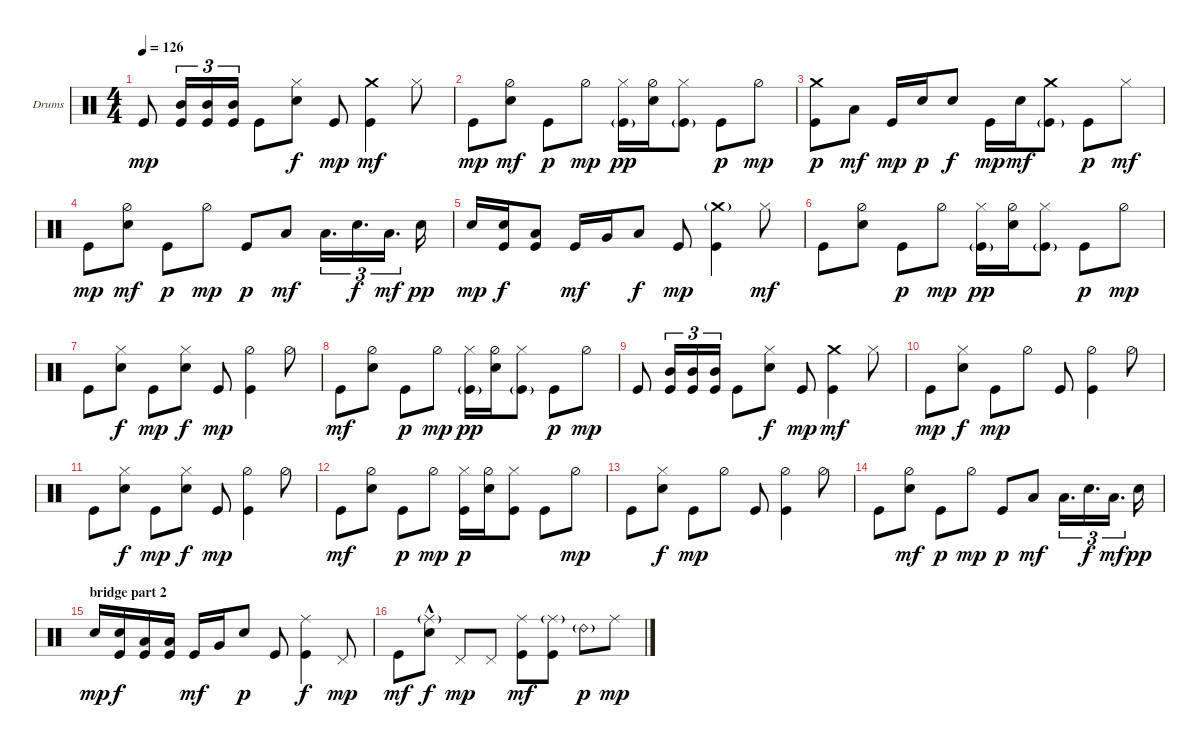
\bracketExtendMode groupsimilarinstruments
\firstSystemTrackNameOrientation horizontal
\otherSystemsTrackNameOrientation horizontal
\track ("drums - john hinch" "Drums") {instrument percussion}
\staff {score}
\articulation defaults
\ts (4 4)
\tempo 126
\clef neutral
\scale
0.333333
\ks c "Kick (hit)".8{dy mp}
("Kick (hit)" "Mid Tom (hit)").16{tu (3 2)} ("Kick (hit)" "Mid Tom (hit)").16{tu (3 2)} ("Kick (hit)" "Mid Tom (hit)").16{tu (3 2)} "Kick (hit)".8 ("Snare (hit) 2" "Hi-Hat (closed)").8{dy f} "Kick (hit)".8{dy mp} ("Kick (hit)" "Crash medium (hit)").4{dy mf} "Hi-Hat (closed)".8 |
\scale
0.333333 "Kick (hit)".8{dy mp} ("Snare (hit) 2" "Hi-Hat (half)").8{dy mf} "Kick (hit)".8{dy p} "Hi-Hat (half)".8{dy mp} ("Kick (hit)"{g} "Hi-Hat (closed)").16{dy pp} ("Snare (hit) 2" "Hi-Hat (half)").16 ("Kick (hit)"{g} "Hi-Hat (closed)").8 "Kick (hit)".8{dy p} "Hi-Hat (half)".8{dy mp} |
\scale
0.333333 ("Crash medium (hit)" "Kick (hit)").8{dy p} "Low Tom (hit)".8{dy mf} "Kick (hit)".16{dy mp} "Snare (hit) 2".16{dy p} "Snare (hit) 2".8{dy f} "Kick (hit)".16{dy mp} "Snare (hit) 2".16{dy mf} ("Kick (hit)"{g} "Crash medium (hit)").8 "Kick (hit)".8{dy p} "Hi-Hat (closed)".8{dy mf} |
\scale
0.333333 "Kick (hit)".8{dy mp} ("Snare (hit) 2" "Hi-Hat (half)").8{dy mf} "Kick (hit)".8{dy p} "Hi-Hat (half)".8{dy mp} "Kick (hit)".8{dy p} "Low Tom (hit)".8{dy mf} "Low Tom (hit)".16{d tu (3 2)} "Snare (hit) 2".16{d tu (3 2) dy f} "Low Tom (hit)".16{d tu (3 2) dy mf} "Snare (hit) 2".16{dy pp} |
\scale
0.333333 "Snare (hit) 2".16{dy mp} ("Snare (hit) 2" "Kick (hit)").16{dy f} ("Low Tom (hit)" "Kick (hit)").8 "Kick (hit)".16{dy mf} "Very Low Tom (hit)".16 "Low Tom (hit)".8{dy f} "Kick (hit)".8{dy mp} ("Kick (hit)" "Crash medium (hit)"{g}).4 "Hi-Hat (closed)".8{dy mf} |
\scale
0.333333 "Kick (hit)".8 ("Snare (hit) 2" "Hi-Hat (half)").8 "Kick (hit)".8{dy p} "Hi-Hat (half)".8{dy mp} ("Kick (hit)"{g} "Hi-Hat (closed)").16{dy pp} ("Snare (hit) 2" "Hi-Hat (half)").16 ("Kick (hit)"{g} "Hi-Hat (closed)").8 "Kick (hit)".8{dy p} "Hi-Hat (half)".8{dy mp} |
\scale
0.333333 "Kick (hit)".8 ("Snare (hit) 2" "Hi-Hat (closed)").8{dy f} "Kick (hit)".8{dy mp} ("Snare (hit) 2" "Hi-Hat (closed)").8{dy f} "Kick (hit)".8{dy mp} ("Hi-Hat (half)" "Kick (hit)").4 "Hi-Hat (half)".8 |
\scale
0.333333 "Kick (hit)".8{dy mf} ("Snare (hit) 2" "Hi-Hat (half)").8 "Kick (hit)".8{dy p} "Hi-Hat (half)".8{dy mp} ("Kick (hit)"{g} "Hi-Hat (closed)").16{dy pp} ("Snare (hit) 2" "Hi-Hat (half)").16 ("Kick (hit)"{g} "Hi-Hat (closed)").8 "Kick (hit)".8{dy p} "Hi-Hat (half)".8{dy mp} |
\scale
0.333333 "Kick (hit)".8 ("Kick (hit)" "Mid Tom (hit)").16{tu (3 2)} ("Kick (hit)" "Mid Tom (hit)").16{tu (3 2)} ("Kick (hit)" "Mid Tom (hit)").16{tu (3 2)} "Kick (hit)".8 ("Snare (hit) 2" "Hi-Hat (closed)").8{dy f} "Kick (hit)".8{dy mp} ("Kick (hit)" "Crash medium (hit)").4{dy mf} "Hi-Hat (closed)".8 |
\scale
0.333333 "Kick (hit)".8{dy mp} ("Snare (hit) 2" "Hi-Hat (closed)").8{dy f} "Kick (hit)".8{dy mp} "Hi-Hat (half)".8 "Kick (hit)".8 ("Hi-Hat (half)" "Kick (hit)").4 "Hi-Hat (half)".8 |
\scale
0.333333 "Kick (hit)".8 ("Snare (hit) 2" "Hi-Hat (closed)").8{dy f} "Kick (hit)".8{dy mp} ("Snare (hit) 2" "Hi-Hat (closed)").8{dy f} "Kick (hit)".8{dy mp} ("Hi-Hat (half)" "Kick (hit)").4 "Hi-Hat (half)".8 |
\scale
0.333333 "Kick (hit)".8{dy mf} ("Snare (hit) 2" "Hi-Hat (half)").8 "Kick (hit)".8{dy p} "Hi-Hat (half)".8{dy mp} ("Kick (hit)" "Hi-Hat (closed)").16{dy p} ("Snare (hit) 2" "Hi-Hat (half)").16 ("Kick (hit)" "Hi-Hat (closed)").8 "Kick (hit)".8 "Hi-Hat (half)".8{dy mp} |
\scale
0.391473 "Kick (hit)".8 ("Snare (hit) 2" "Hi-Hat (closed)").8{dy f} "Kick (hit)".8{dy mp} "Hi-Hat (half)".8 "Kick (hit)".8 ("Hi-Hat (half)" "Kick (hit)").4 "Hi-Hat (half)".8 |
\scale
0.391473 "Kick (hit)".8 ("Snare (hit) 2" "Hi-Hat (half)").8{dy mf} "Kick (hit)".8{dy p} "Hi-Hat (half)".8{dy mp} "Kick (hit)".8{dy p} "Low Tom (hit)".8{dy mf} "Low Tom (hit)".16{d tu (3 2)} "Snare (hit) 2".16{d tu (3 2) dy f} "Low Tom (hit)".16{d tu (3 2) dy mf} "Snare (hit) 2".16{dy pp} |
\section ("" "bridge part 2")
\scale
0.3117 "Snare (hit) 2".16{dy mp} ("Snare (hit) 2" "Kick (hit)").16{dy f} ("Low Tom (hit)" "Kick (hit)").16 ("Low Tom (hit)" "Kick (hit)").16 "Kick (hit)".16{dy mf} "Very Low Tom (hit)".16 "Snare (hit) 2".8{dy p} "Kick (hit)".8 ("Kick (hit)" "Ride (middle)").4{dy f} "Pedal Hi-Hat (hit)".8{dy mp} |
\scale
0.238636 "Kick (hit)".8{dy mf} ("Snare (hit) 2"{hac} "Ride (middle)"{g}).8{dy f} "Pedal Hi-Hat (hit)".8{dy mp} "Pedal Hi-Hat (hit)".8 ("Kick (hit)" "Ride (middle)").8{dy mf} ("Kick (hit)" "Ride (middle)"{g}).8 "Ride (bell) 2"{g}.8{dy p} "Ride (middle)".8{dy mp}
